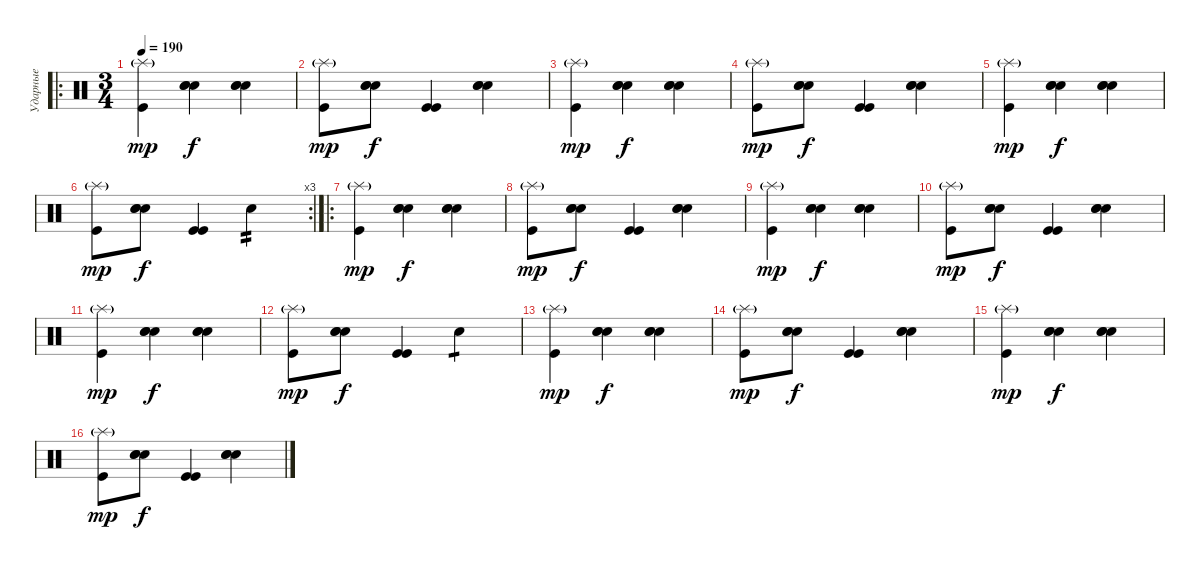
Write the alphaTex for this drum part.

\track ("Ударные" "Ударные") {instrument percussion}
\staff {score}
\articulation defaults
\ro
\ts (3 4)
\tempo 190
\clef neutral
\ks c
("Splash (hit)"{g} "Kick (hit)").4{dy mp volume 16} ("Snare (hit) 2" "Snare (hit) 2" "Snare (hit) 2").4{dy f} ("Snare (hit) 2" "Snare (hit) 2" "Snare (hit) 2").4 |
("Splash (hit)"{g} "Kick (hit)").8{dy mp} ("Snare (hit) 2" "Snare (hit) 2" "Snare (hit) 2").8{dy f} ("Kick (hit)" "Kick (hit)").4 ("Snare (hit) 2" "Snare (hit) 2" "Snare (hit) 2").4 |
("Splash (hit)"{g} "Kick (hit)").4{dy mp} ("Snare (hit) 2" "Snare (hit) 2" "Snare (hit) 2").4{dy f} ("Snare (hit) 2" "Snare (hit) 2" "Snare (hit) 2").4 |
("Splash (hit)"{g} "Kick (hit)").8{dy mp} ("Snare (hit) 2" "Snare (hit) 2" "Snare (hit) 2").8{dy f} ("Kick (hit)" "Kick (hit)").4 ("Snare (hit) 2" "Snare (hit) 2" "Snare (hit) 2").4 |
("Splash (hit)"{g} "Kick (hit)").4{dy mp} ("Snare (hit) 2" "Snare (hit) 2" "Snare (hit) 2").4{dy f} ("Snare (hit) 2" "Snare (hit) 2" "Snare (hit) 2").4 |
\rc 3
("Splash (hit)"{g} "Kick (hit)").8{dy mp} ("Snare (hit) 2" "Snare (hit) 2" "Snare (hit) 2").8{dy f} ("Kick (hit)" "Kick (hit)").4 "Snare (hit) 2".4{tp 2} |
\ro
("Splash (hit)"{g} "Kick (hit)").4{dy mp} ("Snare (hit) 2" "Snare (hit) 2" "Snare (hit) 2").4{dy f} ("Snare (hit) 2" "Snare (hit) 2" "Snare (hit) 2").4 |
("Splash (hit)"{g} "Kick (hit)").8{dy mp} ("Snare (hit) 2" "Snare (hit) 2" "Snare (hit) 2").8{dy f} ("Kick (hit)" "Kick (hit)").4 ("Snare (hit) 2" "Snare (hit) 2" "Snare (hit) 2").4 |
("Splash (hit)"{g} "Kick (hit)").4{dy mp} ("Snare (hit) 2" "Snare (hit) 2" "Snare (hit) 2").4{dy f} ("Snare (hit) 2" "Snare (hit) 2" "Snare (hit) 2").4 |
("Splash (hit)"{g} "Kick (hit)").8{dy mp} ("Snare (hit) 2" "Snare (hit) 2" "Snare (hit) 2").8{dy f} ("Kick (hit)" "Kick (hit)").4 ("Snare (hit) 2" "Snare (hit) 2" "Snare (hit) 2").4 |
("Splash (hit)"{g} "Kick (hit)").4{dy mp} ("Snare (hit) 2" "Snare (hit) 2" "Snare (hit) 2").4{dy f} ("Snare (hit) 2" "Snare (hit) 2" "Snare (hit) 2").4 |
("Splash (hit)"{g} "Kick (hit)").8{dy mp} ("Snare (hit) 2" "Snare (hit) 2" "Snare (hit) 2").8{dy f} ("Kick (hit)" "Kick (hit)").4 "Snare (hit) 2".4{tp 1} |
("Splash (hit)"{g} "Kick (hit)").4{dy mp} ("Snare (hit) 2" "Snare (hit) 2" "Snare (hit) 2").4{dy f} ("Snare (hit) 2" "Snare (hit) 2" "Snare (hit) 2").4 |
("Splash (hit)"{g} "Kick (hit)").8{dy mp} ("Snare (hit) 2" "Snare (hit) 2" "Snare (hit) 2").8{dy f} ("Kick (hit)" "Kick (hit)").4 ("Snare (hit) 2" "Snare (hit) 2" "Snare (hit) 2").4 |
("Splash (hit)"{g} "Kick (hit)").4{dy mp} ("Snare (hit) 2" "Snare (hit) 2" "Snare (hit) 2").4{dy f} ("Snare (hit) 2" "Snare (hit) 2" "Snare (hit) 2").4 |
("Splash (hit)"{g} "Kick (hit)").8{dy mp} ("Snare (hit) 2" "Snare (hit) 2" "Snare (hit) 2").8{dy f} ("Kick (hit)" "Kick (hit)").4 ("Snare (hit) 2" "Snare (hit) 2" "Snare (hit) 2").4
